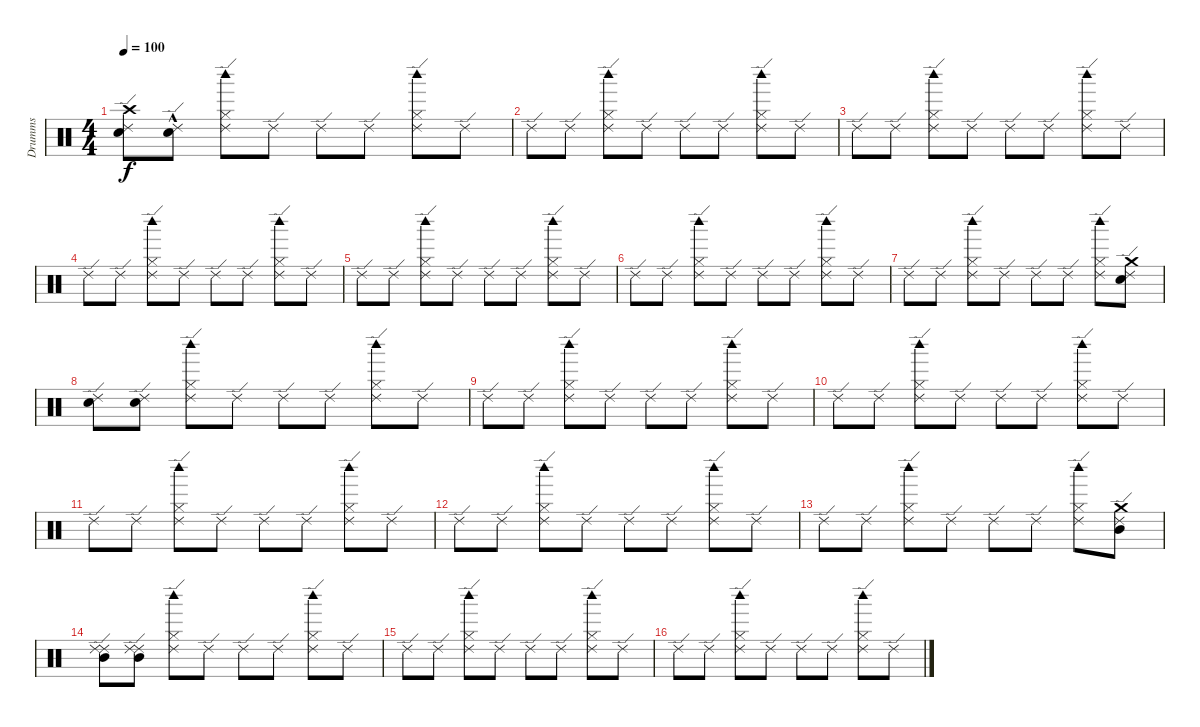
\track ("Drumms" "Drumms") {instrument percussion}
\staff {score}
\articulation defaults
\ts (4 4)
\tempo 100
\clef neutral
\ks c
("Crash high (hit)" "Electric Snare (hit)" "Ride (edge) 2").8{dy f} ("Electric Snare (hit)"{hac} "Ride (edge) 2").8 ("Ride (edge) 2" "Hi-Hat (closed)" "Woodblock high (hit)").8 "Ride (edge) 2".8 "Ride (edge) 2".8 "Ride (edge) 2".8 ("Ride (edge) 2" "Hi-Hat (closed)" "Woodblock high (hit)").8 "Ride (edge) 2".8 |
"Ride (edge) 2".8 "Ride (edge) 2".8 ("Ride (edge) 2" "Hi-Hat (closed)" "Woodblock high (hit)").8 "Ride (edge) 2".8 "Ride (edge) 2".8 "Ride (edge) 2".8 ("Ride (edge) 2" "Hi-Hat (closed)" "Woodblock high (hit)").8 "Ride (edge) 2".8 |
"Ride (edge) 2".8 "Ride (edge) 2".8 ("Ride (edge) 2" "Hi-Hat (closed)" "Woodblock high (hit)").8 "Ride (edge) 2".8 "Ride (edge) 2".8 "Ride (edge) 2".8 ("Ride (edge) 2" "Hi-Hat (closed)" "Woodblock high (hit)").8 "Ride (edge) 2".8 |
"Ride (edge) 2".8 "Ride (edge) 2".8 ("Ride (edge) 2" "Hi-Hat (closed)" "Woodblock high (hit)").8 "Ride (edge) 2".8 "Ride (edge) 2".8 "Ride (edge) 2".8 ("Ride (edge) 2" "Hi-Hat (closed)" "Woodblock high (hit)").8 "Ride (edge) 2".8 |
"Ride (edge) 2".8 "Ride (edge) 2".8 ("Ride (edge) 2" "Hi-Hat (closed)" "Woodblock high (hit)").8 "Ride (edge) 2".8 "Ride (edge) 2".8 "Ride (edge) 2".8 ("Ride (edge) 2" "Hi-Hat (closed)" "Woodblock high (hit)").8 "Ride (edge) 2".8 |
"Ride (edge) 2".8 "Ride (edge) 2".8 ("Ride (edge) 2" "Hi-Hat (closed)" "Woodblock high (hit)").8 "Ride (edge) 2".8 "Ride (edge) 2".8 "Ride (edge) 2".8 ("Ride (edge) 2" "Hi-Hat (closed)" "Woodblock high (hit)").8 "Ride (edge) 2".8 |
"Ride (edge) 2".8 "Ride (edge) 2".8 ("Ride (edge) 2" "Hi-Hat (closed)" "Woodblock high (hit)").8 "Ride (edge) 2".8 "Ride (edge) 2".8 "Ride (edge) 2".8 ("Ride (edge) 2" "Hi-Hat (closed)" "Woodblock high (hit)").8 ("Snare (hit) 2" "Crash medium (hit)" "Ride (edge) 2").8 |
("Snare (hit) 2" "Ride (edge) 2").8 ("Snare (hit) 2" "Ride (edge) 2").8 ("Ride (edge) 2" "Hi-Hat (closed)" "Woodblock high (hit)").8 "Ride (edge) 2".8 "Ride (edge) 2".8 "Ride (edge) 2".8 ("Ride (edge) 2" "Hi-Hat (closed)" "Woodblock high (hit)").8 "Ride (edge) 2".8 |
"Ride (edge) 2".8 "Ride (edge) 2".8 ("Ride (edge) 2" "Hi-Hat (closed)" "Woodblock high (hit)").8 "Ride (edge) 2".8 "Ride (edge) 2".8 "Ride (edge) 2".8 ("Ride (edge) 2" "Hi-Hat (closed)" "Woodblock high (hit)").8 "Ride (edge) 2".8 |
"Ride (edge) 2".8 "Ride (edge) 2".8 ("Ride (edge) 2" "Hi-Hat (closed)" "Woodblock high (hit)").8 "Ride (edge) 2".8 "Ride (edge) 2".8 "Ride (edge) 2".8 ("Ride (edge) 2" "Hi-Hat (closed)" "Woodblock high (hit)").8 "Ride (edge) 2".8 |
"Ride (edge) 2".8 "Ride (edge) 2".8 ("Ride (edge) 2" "Hi-Hat (closed)" "Woodblock high (hit)").8 "Ride (edge) 2".8 "Ride (edge) 2".8 "Ride (edge) 2".8 ("Ride (edge) 2" "Hi-Hat (closed)" "Woodblock high (hit)").8 "Ride (edge) 2".8 |
"Ride (edge) 2".8 "Ride (edge) 2".8 ("Ride (edge) 2" "Hi-Hat (closed)" "Woodblock high (hit)").8 "Ride (edge) 2".8 "Ride (edge) 2".8 "Ride (edge) 2".8 ("Ride (edge) 2" "Hi-Hat (closed)" "Woodblock high (hit)").8 "Ride (edge) 2".8 |
"Ride (edge) 2".8 "Ride (edge) 2".8 ("Ride (edge) 2" "Hi-Hat (closed)" "Woodblock high (hit)").8 "Ride (edge) 2".8 "Ride (edge) 2".8 "Ride (edge) 2".8 ("Ride (edge) 2" "Hi-Hat (closed)" "Woodblock high (hit)").8 ("Mid Tom (hit)" "Crash medium (hit)" "Ride (edge) 2").8 |
("Mid Tom (hit)" "Ride (edge) 2" "Ride (edge) 2").8 ("Mid Tom (hit)" "Ride (edge) 2" "Ride (edge) 2").8 ("Ride (edge) 2" "Hi-Hat (closed)" "Woodblock high (hit)").8 "Ride (edge) 2".8 "Ride (edge) 2".8 "Ride (edge) 2".8 ("Ride (edge) 2" "Hi-Hat (closed)" "Woodblock high (hit)").8 "Ride (edge) 2".8 |
"Ride (edge) 2".8 "Ride (edge) 2".8 ("Ride (edge) 2" "Hi-Hat (closed)" "Woodblock high (hit)").8 "Ride (edge) 2".8 "Ride (edge) 2".8 "Ride (edge) 2".8 ("Ride (edge) 2" "Hi-Hat (closed)" "Woodblock high (hit)").8 "Ride (edge) 2".8 |
"Ride (edge) 2".8 "Ride (edge) 2".8 ("Ride (edge) 2" "Hi-Hat (closed)" "Woodblock high (hit)").8 "Ride (edge) 2".8 "Ride (edge) 2".8 "Ride (edge) 2".8 ("Ride (edge) 2" "Hi-Hat (closed)" "Woodblock high (hit)").8 "Ride (edge) 2".8
